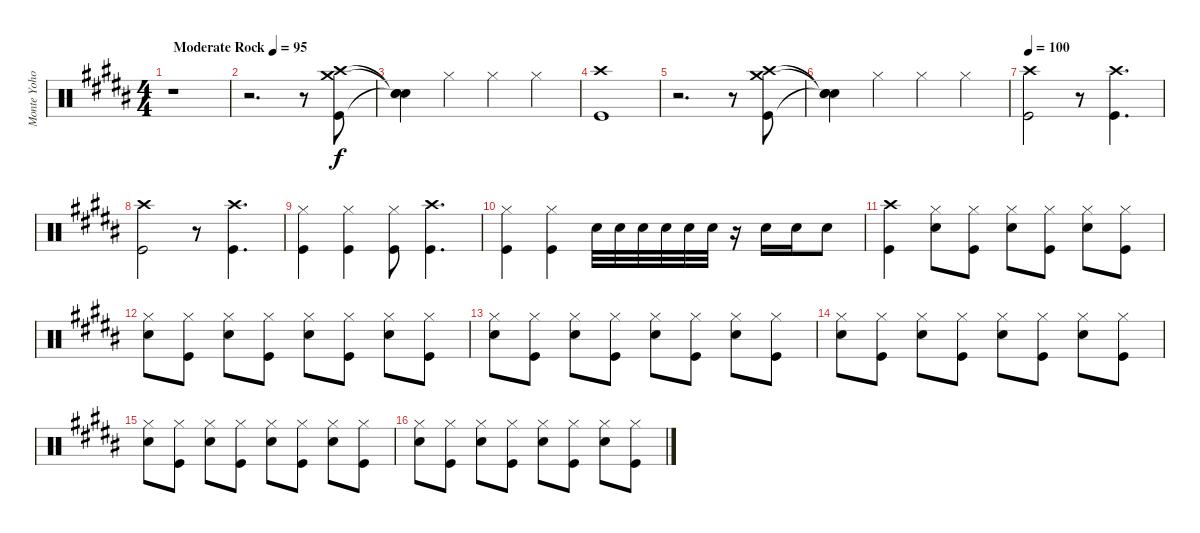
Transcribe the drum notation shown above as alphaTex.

\track ("Monte Yoho Drums" "Monte Yoho") {instrument percussion}
\staff {score}
\articulation defaults
\ts (4 4)
\tempo (95 "Moderate Rock")
\clef neutral
\ks g#minor
r.1{dy f} |
r.2{d} r.8 ("Crash high (hit)" "Crash medium (hit)" "Kick (hit)").8 |
("Snare (hit)"{t} "Snare (hit)"{t} "Snare (hit)"{t}).4 "Hi-Hat (closed)".4 "Hi-Hat (closed)".4 "Hi-Hat (closed)".4 |
("Crash high (hit)" "Kick (hit)").1 |
r.2{d} r.8 ("Crash high (hit)" "Crash medium (hit)" "Kick (hit)").8 |
("Snare (hit)"{t} "Snare (hit)"{t} "Snare (hit)"{t}).4 "Hi-Hat (closed)".4 "Hi-Hat (closed)".4 "Hi-Hat (closed)".4 |
\tempo 100
("Crash high (hit)" "Kick (hit)").2 r.8 ("Crash high (hit)" "Kick (hit)").4{d} |
("Crash high (hit)" "Kick (hit)").2 r.8 ("Crash high (hit)" "Kick (hit)").4{d} |
("Hi-Hat (closed)" "Kick (hit)").4 ("Hi-Hat (closed)" "Kick (hit)").4 ("Hi-Hat (closed)" "Kick (hit)").8 ("Crash high (hit)" "Kick (hit)").4{d} |
("Hi-Hat (closed)" "Kick (hit)").4 ("Hi-Hat (closed)" "Kick (hit)").4 "Snare (hit) 2".32 "Snare (hit) 2".32 "Snare (hit) 2".32 "Snare (hit) 2".32 "Snare (hit) 2".32 "Snare (hit) 2".32 r.16 "Snare (hit) 2".16 "Snare (hit) 2".16 "Snare (hit) 2".8 |
("Crash high (hit)" "Kick (hit)").4 ("Hi-Hat (closed)" "Snare (hit) 2").8 ("Hi-Hat (closed)" "Kick (hit)").8 ("Hi-Hat (closed)" "Snare (hit) 2").8 ("Hi-Hat (closed)" "Kick (hit)").8 ("Hi-Hat (closed)" "Snare (hit) 2").8 ("Hi-Hat (closed)" "Kick (hit)").8 |
("Hi-Hat (closed)" "Snare (hit) 2").8 ("Hi-Hat (closed)" "Kick (hit)").8 ("Hi-Hat (closed)" "Snare (hit) 2").8 ("Hi-Hat (closed)" "Kick (hit)").8 ("Hi-Hat (closed)" "Snare (hit) 2").8 ("Hi-Hat (closed)" "Kick (hit)").8 ("Hi-Hat (closed)" "Snare (hit) 2").8 ("Hi-Hat (closed)" "Kick (hit)").8 |
("Hi-Hat (closed)" "Snare (hit) 2").8 ("Hi-Hat (closed)" "Kick (hit)").8 ("Hi-Hat (closed)" "Snare (hit) 2").8 ("Hi-Hat (closed)" "Kick (hit)").8 ("Hi-Hat (closed)" "Snare (hit) 2").8 ("Hi-Hat (closed)" "Kick (hit)").8 ("Hi-Hat (closed)" "Snare (hit) 2").8 ("Hi-Hat (closed)" "Kick (hit)").8 |
("Hi-Hat (closed)" "Snare (hit) 2").8 ("Hi-Hat (closed)" "Kick (hit)").8 ("Hi-Hat (closed)" "Snare (hit) 2").8 ("Hi-Hat (closed)" "Kick (hit)").8 ("Hi-Hat (closed)" "Snare (hit) 2").8 ("Hi-Hat (closed)" "Kick (hit)").8 ("Hi-Hat (closed)" "Snare (hit) 2").8 ("Hi-Hat (closed)" "Kick (hit)").8 |
("Hi-Hat (closed)" "Snare (hit) 2").8 ("Hi-Hat (closed)" "Kick (hit)").8 ("Hi-Hat (closed)" "Snare (hit) 2").8 ("Hi-Hat (closed)" "Kick (hit)").8 ("Hi-Hat (closed)" "Snare (hit) 2").8 ("Hi-Hat (closed)" "Kick (hit)").8 ("Hi-Hat (closed)" "Snare (hit) 2").8 ("Hi-Hat (closed)" "Kick (hit)").8 |
("Hi-Hat (closed)" "Snare (hit) 2").8 ("Hi-Hat (closed)" "Kick (hit)").8 ("Hi-Hat (closed)" "Snare (hit) 2").8 ("Hi-Hat (closed)" "Kick (hit)").8 ("Hi-Hat (closed)" "Snare (hit) 2").8 ("Hi-Hat (closed)" "Kick (hit)").8 ("Hi-Hat (closed)" "Snare (hit) 2").8 ("Hi-Hat (closed)" "Kick (hit)").8
